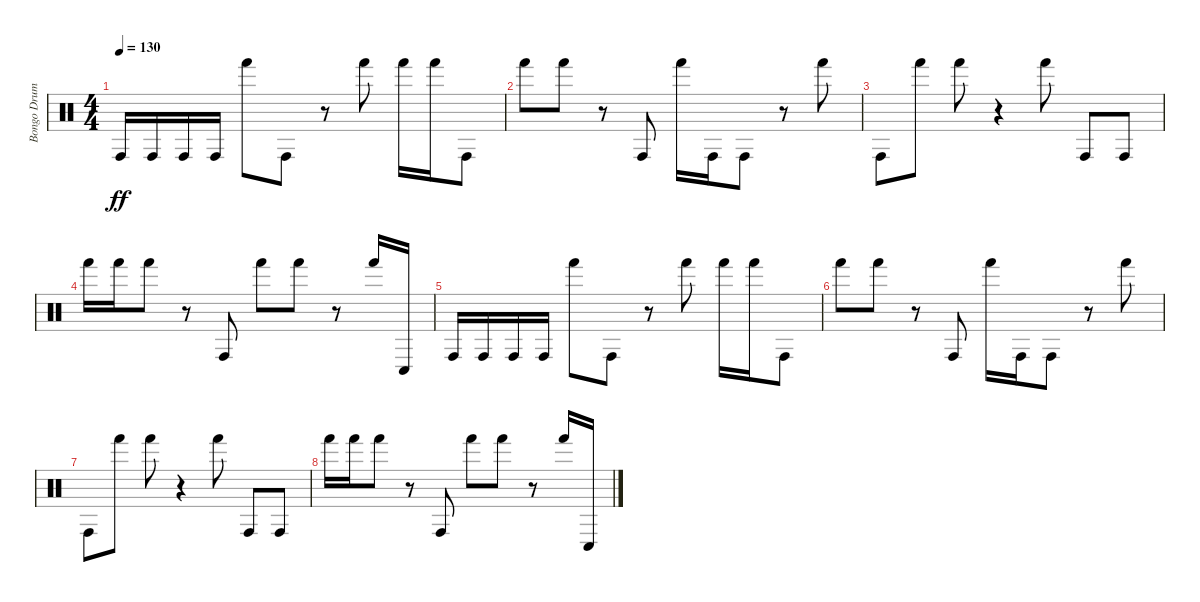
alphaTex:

\track ("Bongo Drums" "Bongo Drum") {instrument percussion}
\staff {score}
\articulation defaults
\ts (4 4)
\tempo 130
\clef neutral
\ks c "Conga high (hit)".16{dy ff} "Conga high (hit)".16 "Conga high (hit)".16 "Conga high (hit)".16 "Hand (hit)".8 "Conga high (hit)".8
r.8 "Hand (hit)".8 "Hand (hit)".16 "Hand (hit)".16 "Conga high (hit)".8 |
"Hand (hit)".8 "Hand (hit)".8 r.8 "Conga high (hit)".8 "Hand (hit)".16 "Conga high (hit)".16 "Conga high (hit)".8 r.8 "Hand (hit)".8 |
"Conga high (hit)".8 "Hand (hit)".8 "Hand (hit)".8 r.4 "Hand (hit)".8 "Conga high (hit)".8 "Conga high (hit)".8 |
"Hand (hit)".16 "Hand (hit)".16 "Hand (hit)".8 r.8 "Conga high (hit)".8 "Hand (hit)".8 "Hand (hit)".8 r.8 "Hand (hit)".16 "Conga low (hit)".16 |
"Conga high (hit)".16 "Conga high (hit)".16 "Conga high (hit)".16 "Conga high (hit)".16 "Hand (hit)".8 "Conga high (hit)".8 r.8 "Hand (hit)".8 "Hand (hit)".16 "Hand (hit)".16 "Conga high (hit)".8 |
"Hand (hit)".8 "Hand (hit)".8 r.8 "Conga high (hit)".8 "Hand (hit)".16 "Conga high (hit)".16 "Conga high (hit)".8 r.8 "Hand (hit)".8 |
"Conga high (hit)".8 "Hand (hit)".8 "Hand (hit)".8 r.4 "Hand (hit)".8 "Conga high (hit)".8 "Conga high (hit)".8 |
"Hand (hit)".16 "Hand (hit)".16 "Hand (hit)".8 r.8 "Conga high (hit)".8 "Hand (hit)".8 "Hand (hit)".8 r.8 "Hand (hit)".16 "Conga low (hit)".16
